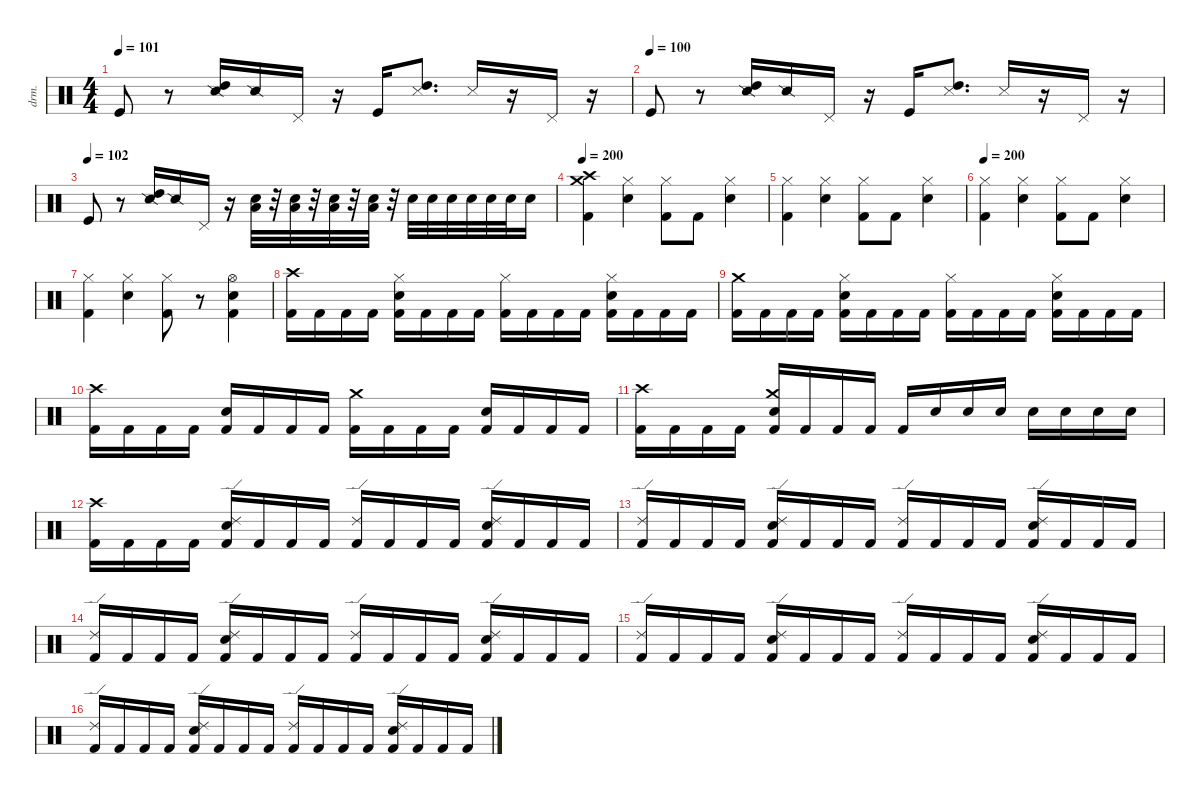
\defaultSystemsLayout 4
\hideDynamics
\bracketExtendMode nobrackets
\track ("Drums" "drm.") {instrument percussion}
\staff {score}
\articulation defaults
\ts (4 4)
\tempo 101
\clef neutral
\ks c "Kick (hit)".8{dy mf}
r.8 ("High Tom (hit)" "Snare (side stick) 2").16{dy mp} "Snare (side stick) 2".16{dy mf} "Pedal Hi-Hat (hit)".16{dy mp} r.16 "Kick (hit)".16{dy mf} ("High Tom (hit)" "Snare (side stick) 3").8{d dy mp} "Snare (side stick) 3".16{dy mf} r.16 "Pedal Hi-Hat (hit)".16{dy mp} r.16 |
\tempo (100)
"Kick (hit)".8{dy mf} r.8 ("High Tom (hit)" "Snare (side stick) 2").16{dy mp} "Snare (side stick) 2".16{dy mf} "Pedal Hi-Hat (hit)".16{dy mp} r.16 "Kick (hit)".16{dy mf} ("High Tom (hit)" "Snare (side stick) 3").8{d dy mp} "Snare (side stick) 3".16{dy mf} r.16 "Pedal Hi-Hat (hit)".16{dy mp} r.16 |
\tempo (102)
"Kick (hit)".8{dy mf} r.8 ("High Tom (hit)" "Snare (side stick) 2").16{dy mp} "Snare (side stick) 2".16{dy mf} "Pedal Hi-Hat (hit)".16{dy mp} r.16 ("Snare (hit) 2" "Low Tom (hit)").32{dy f} r.32 ("Snare (hit) 2" "Low Tom (hit)").32 r.32 ("Snare (hit) 2" "Low Tom (hit)").32 r.32 ("Snare (hit) 2" "Low Tom (hit)").32 r.32 "Snare (hit) 2".32 "Snare (hit) 2".32 "Snare (hit) 2".32 "Snare (hit) 2".32 "Snare (hit) 2".32 "Snare (hit) 2".32 "Snare (hit) 2".16 |
\tempo 200
("Crash high (hit)" "Crash medium (hit)" "Kick (hit) 2").4{dy mf} ("Hi-Hat (closed)" "Snare (hit) 2").4{dy f} ("Hi-Hat (closed)" "Kick (hit) 2").8 "Kick (hit) 2".8 ("Hi-Hat (closed)" "Snare (hit) 2").4 |
("Hi-Hat (closed)" "Kick (hit) 2").4 ("Hi-Hat (closed)" "Snare (hit) 2").4 ("Hi-Hat (closed)" "Kick (hit) 2").8 "Kick (hit) 2".8 ("Hi-Hat (closed)" "Snare (hit) 2").4 |
\tempo 200
("Hi-Hat (closed)" "Kick (hit) 2").4 ("Hi-Hat (closed)" "Snare (hit) 2").4 ("Hi-Hat (closed)" "Kick (hit) 2").8 "Kick (hit) 2".8 ("Hi-Hat (closed)" "Snare (hit) 2").4 |
("Hi-Hat (closed)" "Kick (hit) 2").4 ("Hi-Hat (closed)" "Snare (hit) 2").4 ("Hi-Hat (closed)" "Kick (hit) 2").8 r.8 ("Hi-Hat (open)" "Snare (hit) 2" "Kick (hit) 2").4 |
("Crash high (hit)" "Kick (hit) 2").16 "Kick (hit) 2".16 "Kick (hit) 2".16 "Kick (hit) 2".16 ("Hi-Hat (closed)" "Snare (hit) 2" "Kick (hit) 2").16 "Kick (hit) 2".16 "Kick (hit) 2".16 "Kick (hit) 2".16 ("Hi-Hat (closed)" "Kick (hit) 2").16 "Kick (hit) 2".16 "Kick (hit) 2".16 "Kick (hit) 2".16 ("Hi-Hat (closed)" "Snare (hit) 2" "Kick (hit) 2").16 "Kick (hit) 2".16 "Kick (hit) 2".16 "Kick (hit) 2".16 |
("Crash medium (hit)" "Kick (hit) 2").16 "Kick (hit) 2".16 "Kick (hit) 2".16 "Kick (hit) 2".16 ("Hi-Hat (closed)" "Snare (hit) 2" "Kick (hit) 2").16 "Kick (hit) 2".16 "Kick (hit) 2".16 "Kick (hit) 2".16 ("Hi-Hat (closed)" "Kick (hit) 2").16 "Kick (hit) 2".16 "Kick (hit) 2".16 "Kick (hit) 2".16 ("Hi-Hat (closed)" "Snare (hit) 2" "Kick (hit) 2").16 "Kick (hit) 2".16 "Kick (hit) 2".16 "Kick (hit) 2".16 |
("Crash high (hit)" "Kick (hit) 2").16 "Kick (hit) 2".16 "Kick (hit) 2".16 "Kick (hit) 2".16 ("Snare (hit) 2" "Kick (hit) 2").16 "Kick (hit) 2".16 "Kick (hit) 2".16 "Kick (hit) 2".16 ("Crash medium (hit)" "Kick (hit) 2").16 "Kick (hit) 2".16 "Kick (hit) 2".16 "Kick (hit) 2".16 ("Snare (hit) 2" "Kick (hit) 2").16 "Kick (hit) 2".16 "Kick (hit) 2".16 "Kick (hit) 2".16 |
("Crash high (hit)" "Kick (hit) 2").16 "Kick (hit) 2".16 "Kick (hit) 2".16 "Kick (hit) 2".16 ("Crash medium (hit)" "Snare (hit) 2" "Kick (hit) 2").16 "Kick (hit) 2".16 "Kick (hit) 2".16 "Kick (hit) 2".16 "Kick (hit) 2".16 "Snare (hit) 2".16 "Snare (hit) 2".16 "Snare (hit) 2".16 "Snare (hit) 2".16 "Snare (hit) 2".16 "Snare (hit) 2".16 "Snare (hit) 2".16 |
("Crash high (hit)" "Kick (hit) 2").16 "Kick (hit) 2".16 "Kick (hit) 2".16 "Kick (hit) 2".16 ("Ride (edge) 2" "Snare (hit) 2" "Kick (hit) 2").16 "Kick (hit) 2".16 "Kick (hit) 2".16 "Kick (hit) 2".16 ("Ride (edge) 2" "Kick (hit) 2").16 "Kick (hit) 2".16 "Kick (hit) 2".16 "Kick (hit) 2".16 ("Ride (edge) 2" "Snare (hit) 2" "Kick (hit) 2").16 "Kick (hit) 2".16 "Kick (hit) 2".16 "Kick (hit) 2".16 |
("Ride (edge) 2" "Kick (hit) 2").16 "Kick (hit) 2".16 "Kick (hit) 2".16 "Kick (hit) 2".16 ("Ride (edge) 2" "Snare (hit) 2" "Kick (hit) 2").16 "Kick (hit) 2".16 "Kick (hit) 2".16 "Kick (hit) 2".16 ("Ride (edge) 2" "Kick (hit) 2").16 "Kick (hit) 2".16 "Kick (hit) 2".16 "Kick (hit) 2".16 ("Ride (edge) 2" "Snare (hit) 2" "Kick (hit) 2").16 "Kick (hit) 2".16 "Kick (hit) 2".16 "Kick (hit) 2".16 |
("Ride (edge) 2" "Kick (hit) 2").16 "Kick (hit) 2".16 "Kick (hit) 2".16 "Kick (hit) 2".16 ("Ride (edge) 2" "Snare (hit) 2" "Kick (hit) 2").16 "Kick (hit) 2".16 "Kick (hit) 2".16 "Kick (hit) 2".16 ("Ride (edge) 2" "Kick (hit) 2").16 "Kick (hit) 2".16 "Kick (hit) 2".16 "Kick (hit) 2".16 ("Ride (edge) 2" "Snare (hit) 2" "Kick (hit) 2").16 "Kick (hit) 2".16 "Kick (hit) 2".16 "Kick (hit) 2".16 |
("Ride (edge) 2" "Kick (hit) 2").16 "Kick (hit) 2".16 "Kick (hit) 2".16 "Kick (hit) 2".16 ("Ride (edge) 2" "Snare (hit) 2" "Kick (hit) 2").16 "Kick (hit) 2".16 "Kick (hit) 2".16 "Kick (hit) 2".16 ("Ride (edge) 2" "Kick (hit) 2").16 "Kick (hit) 2".16 "Kick (hit) 2".16 "Kick (hit) 2".16 ("Ride (edge) 2" "Snare (hit) 2" "Kick (hit) 2").16 "Kick (hit) 2".16 "Kick (hit) 2".16 "Kick (hit) 2".16 |
("Ride (edge) 2" "Kick (hit) 2").16 "Kick (hit) 2".16 "Kick (hit) 2".16 "Kick (hit) 2".16 ("Ride (edge) 2" "Snare (hit) 2" "Kick (hit) 2").16 "Kick (hit) 2".16 "Kick (hit) 2".16 "Kick (hit) 2".16 ("Ride (edge) 2" "Kick (hit) 2").16 "Kick (hit) 2".16 "Kick (hit) 2".16 "Kick (hit) 2".16 ("Ride (edge) 2" "Snare (hit) 2" "Kick (hit) 2").16 "Kick (hit) 2".16 "Kick (hit) 2".16 "Kick (hit) 2".16
